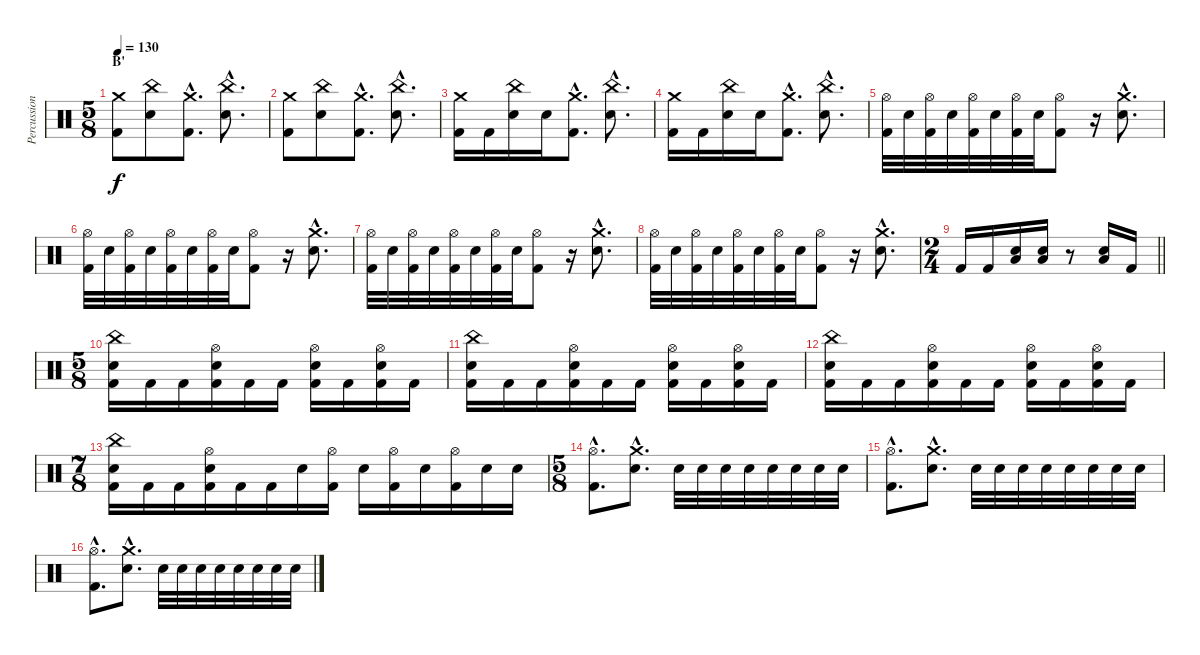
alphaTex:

\track ("Percussion" "Percussion") {instrument percussion}
\staff {score}
\articulation defaults
\ts (5 8)
\section ("" "B'")
\tempo 130
\clef neutral
\ks c
("Crash medium (hit)" "Kick (hit) 2").8{dy f} ("China (hit)" "Electric Snare (hit)").8 ("Crash medium (hit)"{hac} "Kick (hit) 2"{hac}).8{d} ("China (hit)"{hac} "Electric Snare (hit)"{hac}).8{d} |
("Crash medium (hit)" "Kick (hit) 2").8 ("China (hit)" "Electric Snare (hit)").8 ("Crash medium (hit)"{hac} "Kick (hit) 2"{hac}).8{d} ("China (hit)"{hac} "Electric Snare (hit)"{hac}).8{d} |
("Crash medium (hit)" "Kick (hit) 2").16 "Kick (hit) 2".16 ("China (hit)" "Electric Snare (hit)").16 "Electric Snare (hit)".16 ("Crash medium (hit)"{hac} "Kick (hit) 2"{hac}).8{d} ("China (hit)"{hac} "Electric Snare (hit)"{hac}).8{d} |
("Crash medium (hit)" "Kick (hit) 2").16 "Kick (hit) 2".16 ("China (hit)" "Electric Snare (hit)").16 "Electric Snare (hit)".16 ("Crash medium (hit)"{hac} "Kick (hit) 2"{hac}).8{d} ("China (hit)"{hac} "Electric Snare (hit)"{hac}).8{d} |
("Hi-Hat (open)" "Kick (hit) 2").32 "Electric Snare (hit)".32 ("Hi-Hat (open)" "Kick (hit) 2").32 "Electric Snare (hit)".32 ("Hi-Hat (open)" "Kick (hit) 2").32 "Electric Snare (hit)".32 ("Hi-Hat (open)" "Kick (hit) 2").32 "Electric Snare (hit)".32 ("Hi-Hat (open)" "Kick (hit) 2").8 r.16 ("Crash medium (hit)"{hac} "Electric Snare (hit)"{hac}).8{d} |
("Hi-Hat (open)" "Kick (hit) 2").32 "Electric Snare (hit)".32 ("Hi-Hat (open)" "Kick (hit) 2").32 "Electric Snare (hit)".32 ("Hi-Hat (open)" "Kick (hit) 2").32 "Electric Snare (hit)".32 ("Hi-Hat (open)" "Kick (hit) 2").32 "Electric Snare (hit)".32 ("Hi-Hat (open)" "Kick (hit) 2").8 r.16 ("Crash medium (hit)"{hac} "Electric Snare (hit)"{hac}).8{d} |
("Hi-Hat (open)" "Kick (hit) 2").32 "Electric Snare (hit)".32 ("Hi-Hat (open)" "Kick (hit) 2").32 "Electric Snare (hit)".32 ("Hi-Hat (open)" "Kick (hit) 2").32 "Electric Snare (hit)".32 ("Hi-Hat (open)" "Kick (hit) 2").32 "Electric Snare (hit)".32 ("Hi-Hat (open)" "Kick (hit) 2").8 r.16 ("Crash medium (hit)"{hac} "Electric Snare (hit)"{hac}).8{d} |
("Hi-Hat (open)" "Kick (hit) 2").32 "Electric Snare (hit)".32 ("Hi-Hat (open)" "Kick (hit) 2").32 "Electric Snare (hit)".32 ("Hi-Hat (open)" "Kick (hit) 2").32 "Electric Snare (hit)".32 ("Hi-Hat (open)" "Kick (hit) 2").32 "Electric Snare (hit)".32 ("Hi-Hat (open)" "Kick (hit) 2").8 r.16 ("Crash medium (hit)"{hac} "Electric Snare (hit)"{hac}).8{d} |
\ts (2 4)
\barLineRight lightlight "Kick (hit) 2".16 "Kick (hit) 2".16
("Low Floor Tom (hit)" "Electric Snare (hit)").16 ("Low Floor Tom (hit)" "Electric Snare (hit)").16 r.8 ("Low Floor Tom (hit)" "Electric Snare (hit)").16 "Kick (hit) 2".16 |
\ts (5 8)
("China (hit)" "Electric Snare (hit)" "Kick (hit) 2").16 "Kick (hit) 2".16 "Kick (hit) 2".16 ("Hi-Hat (open)" "Electric Snare (hit)" "Kick (hit) 2").16 "Kick (hit) 2".16 "Kick (hit) 2".16 ("Hi-Hat (open)" "Electric Snare (hit)" "Kick (hit) 2").16 "Kick (hit) 2".16 ("Hi-Hat (open)" "Electric Snare (hit)" "Kick (hit) 2").16 "Kick (hit) 2".16 |
("China (hit)" "Electric Snare (hit)" "Kick (hit) 2").16 "Kick (hit) 2".16 "Kick (hit) 2".16 ("Hi-Hat (open)" "Electric Snare (hit)" "Kick (hit) 2").16 "Kick (hit) 2".16 "Kick (hit) 2".16 ("Hi-Hat (open)" "Electric Snare (hit)" "Kick (hit) 2").16 "Kick (hit) 2".16 ("Hi-Hat (open)" "Electric Snare (hit)" "Kick (hit) 2").16 "Kick (hit) 2".16 |
("China (hit)" "Electric Snare (hit)" "Kick (hit) 2").16 "Kick (hit) 2".16 "Kick (hit) 2".16 ("Hi-Hat (open)" "Electric Snare (hit)" "Kick (hit) 2").16 "Kick (hit) 2".16 "Kick (hit) 2".16 ("Hi-Hat (open)" "Electric Snare (hit)" "Kick (hit) 2").16 "Kick (hit) 2".16 ("Hi-Hat (open)" "Electric Snare (hit)" "Kick (hit) 2").16 "Kick (hit) 2".16 |
\ts (7 8)
("China (hit)" "Electric Snare (hit)" "Kick (hit) 2").16 "Kick (hit) 2".16 "Kick (hit) 2".16 ("Hi-Hat (open)" "Electric Snare (hit)" "Kick (hit) 2").16 "Kick (hit) 2".16 "Kick (hit) 2".16 "Electric Snare (hit)".16 ("Hi-Hat (open)" "Kick (hit) 2").16 "Electric Snare (hit)".16 ("Hi-Hat (open)" "Kick (hit) 2").16 "Electric Snare (hit)".16 ("Hi-Hat (open)" "Kick (hit) 2").16 "Electric Snare (hit)".16 "Electric Snare (hit)".16 |
\ts (5 8)
("Hi-Hat (open)"{hac} "Kick (hit) 2"{hac}).8{d} ("Crash medium (hit)"{hac} "Electric Snare (hit)"{hac}).8{d} "Electric Snare (hit)".32 "Electric Snare (hit)".32 "Electric Snare (hit)".32 "Electric Snare (hit)".32 "Electric Snare (hit)".32 "Electric Snare (hit)".32 "Electric Snare (hit)".32 "Electric Snare (hit)".32 |
("Hi-Hat (open)"{hac} "Kick (hit) 2"{hac}).8{d} ("Crash medium (hit)"{hac} "Electric Snare (hit)"{hac}).8{d} "Electric Snare (hit)".32 "Electric Snare (hit)".32 "Electric Snare (hit)".32 "Electric Snare (hit)".32 "Electric Snare (hit)".32 "Electric Snare (hit)".32 "Electric Snare (hit)".32 "Electric Snare (hit)".32 |
("Hi-Hat (open)"{hac} "Kick (hit) 2"{hac}).8{d} ("Crash medium (hit)"{hac} "Electric Snare (hit)"{hac}).8{d} "Electric Snare (hit)".32 "Electric Snare (hit)".32 "Electric Snare (hit)".32 "Electric Snare (hit)".32 "Electric Snare (hit)".32 "Electric Snare (hit)".32 "Electric Snare (hit)".32 "Electric Snare (hit)".32
